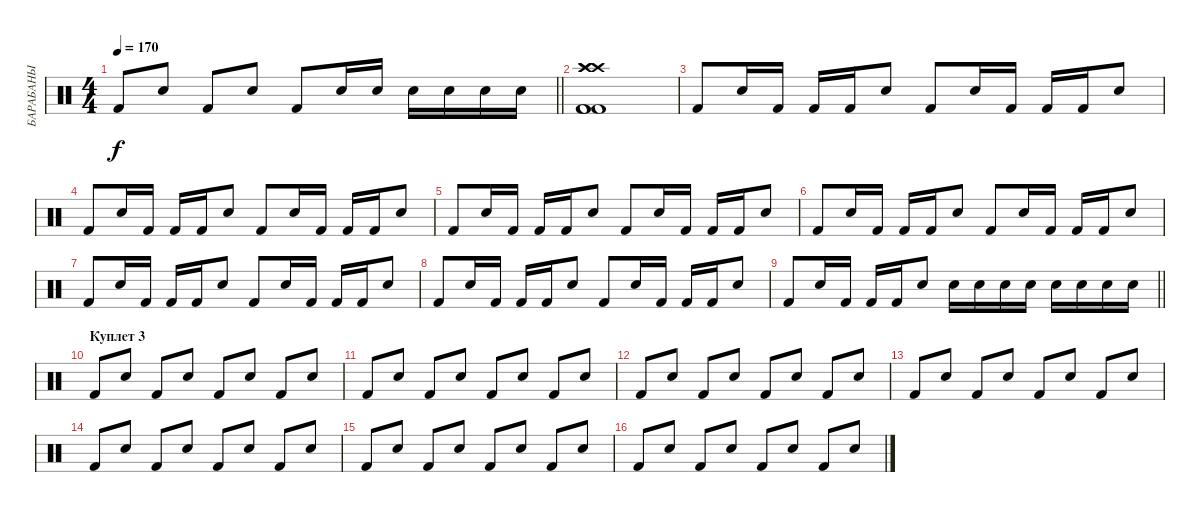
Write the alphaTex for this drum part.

\track ("БАРАБАНЫ" "БАРАБАНЫ") {instrument percussion}
\staff {score}
\articulation defaults
\ts (4 4)
\tempo 170
\clef neutral
\barLineRight lightlight
\ks c "Kick (hit) 2".8{dy f} "Electric Snare (hit)".8 "Kick (hit) 2".8 "Electric Snare (hit)".8 "Kick (hit) 2".8 "Electric Snare (hit)".16 "Electric Snare (hit)".16 "Electric Snare (hit)".16 "Electric Snare (hit)".16 "Electric Snare (hit)".16 "Electric Snare (hit)".16
|
("Kick (hit) 2" "Crash high (hit)" "Kick (hit) 2" "Crash high (hit)" "Kick (hit) 2" "Crash high (hit)").1 |
"Kick (hit) 2".8 "Electric Snare (hit)".16 "Kick (hit) 2".16 "Kick (hit) 2".16 "Kick (hit) 2".16 "Electric Snare (hit)".8 "Kick (hit) 2".8 "Electric Snare (hit)".16 "Kick (hit) 2".16 "Kick (hit) 2".16 "Kick (hit) 2".16 "Electric Snare (hit)".8 |
"Kick (hit) 2".8 "Electric Snare (hit)".16 "Kick (hit) 2".16 "Kick (hit) 2".16 "Kick (hit) 2".16 "Electric Snare (hit)".8 "Kick (hit) 2".8 "Electric Snare (hit)".16 "Kick (hit) 2".16 "Kick (hit) 2".16 "Kick (hit) 2".16 "Electric Snare (hit)".8 |
"Kick (hit) 2".8 "Electric Snare (hit)".16 "Kick (hit) 2".16 "Kick (hit) 2".16 "Kick (hit) 2".16 "Electric Snare (hit)".8 "Kick (hit) 2".8 "Electric Snare (hit)".16 "Kick (hit) 2".16 "Kick (hit) 2".16 "Kick (hit) 2".16 "Electric Snare (hit)".8 |
"Kick (hit) 2".8 "Electric Snare (hit)".16 "Kick (hit) 2".16 "Kick (hit) 2".16 "Kick (hit) 2".16 "Electric Snare (hit)".8 "Kick (hit) 2".8 "Electric Snare (hit)".16 "Kick (hit) 2".16 "Kick (hit) 2".16 "Kick (hit) 2".16 "Electric Snare (hit)".8 |
"Kick (hit) 2".8 "Electric Snare (hit)".16 "Kick (hit) 2".16 "Kick (hit) 2".16 "Kick (hit) 2".16 "Electric Snare (hit)".8 "Kick (hit) 2".8 "Electric Snare (hit)".16 "Kick (hit) 2".16 "Kick (hit) 2".16 "Kick (hit) 2".16 "Electric Snare (hit)".8 |
"Kick (hit) 2".8 "Electric Snare (hit)".16 "Kick (hit) 2".16 "Kick (hit) 2".16 "Kick (hit) 2".16 "Electric Snare (hit)".8 "Kick (hit) 2".8 "Electric Snare (hit)".16 "Kick (hit) 2".16 "Kick (hit) 2".16 "Kick (hit) 2".16 "Electric Snare (hit)".8 |
\barLineRight lightlight "Kick (hit) 2".8 "Electric Snare (hit)".16 "Kick (hit) 2".16 "Kick (hit) 2".16 "Kick (hit) 2".16 "Electric Snare (hit)".8 "Electric Snare (hit)".16 "Electric Snare (hit)".16 "Electric Snare (hit)".16 "Electric Snare (hit)".16 "Electric Snare (hit)".16 "Electric Snare (hit)".16 "Electric Snare (hit)".16 "Electric Snare (hit)".16
|
\section ("" "Куплет 3")
"Kick (hit) 2".8 "Electric Snare (hit)".8 "Kick (hit) 2".8 "Electric Snare (hit)".8 "Kick (hit) 2".8 "Electric Snare (hit)".8 "Kick (hit) 2".8 "Electric Snare (hit)".8 |
"Kick (hit) 2".8 "Electric Snare (hit)".8 "Kick (hit) 2".8 "Electric Snare (hit)".8 "Kick (hit) 2".8 "Electric Snare (hit)".8 "Kick (hit) 2".8 "Electric Snare (hit)".8 |
"Kick (hit) 2".8 "Electric Snare (hit)".8 "Kick (hit) 2".8 "Electric Snare (hit)".8 "Kick (hit) 2".8 "Electric Snare (hit)".8 "Kick (hit) 2".8 "Electric Snare (hit)".8 |
"Kick (hit) 2".8 "Electric Snare (hit)".8 "Kick (hit) 2".8 "Electric Snare (hit)".8 "Kick (hit) 2".8 "Electric Snare (hit)".8 "Kick (hit) 2".8 "Electric Snare (hit)".8 |
"Kick (hit) 2".8 "Electric Snare (hit)".8 "Kick (hit) 2".8 "Electric Snare (hit)".8 "Kick (hit) 2".8 "Electric Snare (hit)".8 "Kick (hit) 2".8 "Electric Snare (hit)".8 |
"Kick (hit) 2".8 "Electric Snare (hit)".8 "Kick (hit) 2".8 "Electric Snare (hit)".8 "Kick (hit) 2".8 "Electric Snare (hit)".8 "Kick (hit) 2".8 "Electric Snare (hit)".8 |
"Kick (hit) 2".8 "Electric Snare (hit)".8 "Kick (hit) 2".8 "Electric Snare (hit)".8 "Kick (hit) 2".8 "Electric Snare (hit)".8 "Kick (hit) 2".8 "Electric Snare (hit)".8
